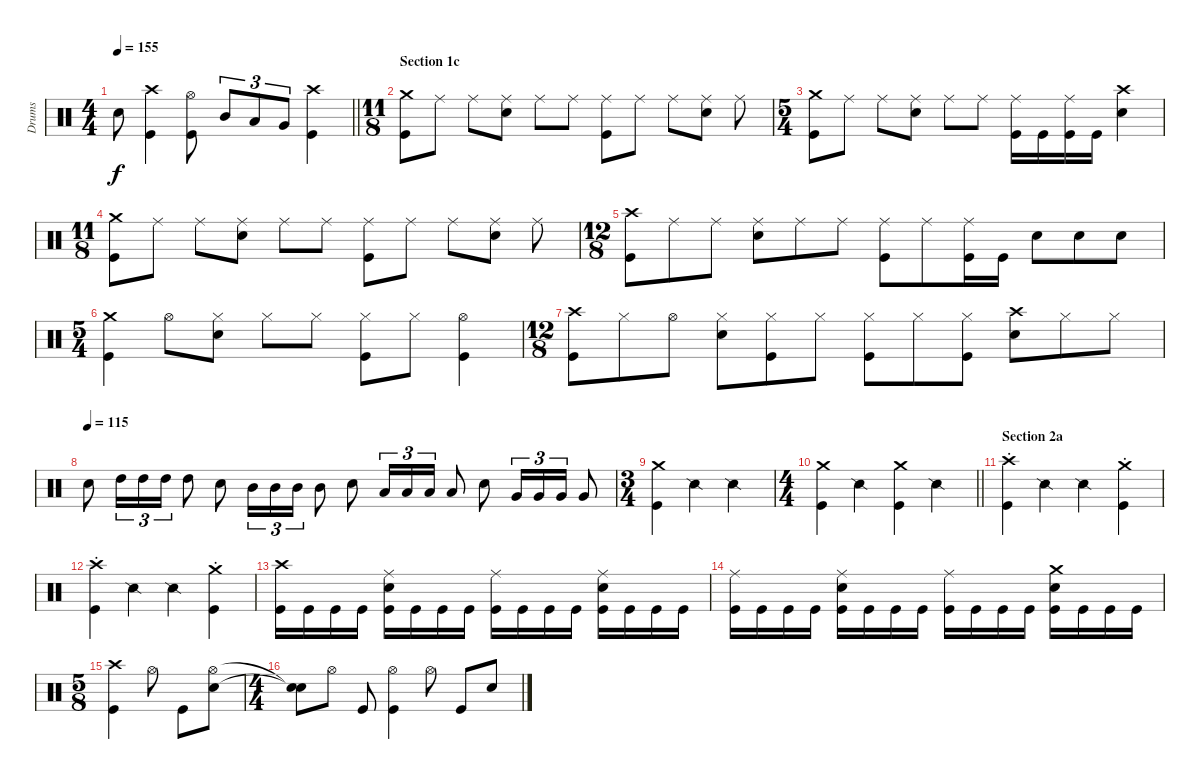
\track ("Drums" "Drums") {instrument percussion}
\staff {score}
\articulation defaults
\ts (4 4)
\tempo 155
\clef neutral
\barLineRight lightlight
\ks c "Snare (hit) 2".8{dy f}
("Crash high (hit)" "Kick (hit)").4 ("Hi-Hat (open)" "Kick (hit)").8 "Mid Tom (hit)".8{tu (3 2)} "Low Tom (hit)".8{tu (3 2)} "Very Low Tom (hit)".8{tu (3 2)} ("Crash high (hit)" "Kick (hit)").4 |
\ts (11 8)
\section ("" "Section 1c")
("Crash medium (hit)" "Kick (hit)").8 "Ride (middle)".8 "Ride (middle)".8 ("Ride (middle)" "Snare (hit) 2").8 "Ride (middle)".8 "Ride (middle)".8 ("Ride (middle)" "Kick (hit)").8 "Ride (middle)".8 "Ride (middle)".8 ("Ride (middle)" "Snare (hit) 2").8 "Ride (middle)".8 |
\ts (5 4)
("Crash medium (hit)" "Kick (hit)").8 "Ride (middle)".8 "Ride (middle)".8 ("Ride (middle)" "Snare (hit) 2").8 "Ride (middle)".8 "Ride (middle)".8 ("Ride (middle)" "Kick (hit)").16 "Kick (hit)".16 ("Ride (middle)" "Kick (hit)").16 "Kick (hit)".16 ("Crash high (hit)" "Snare (hit) 2").4 |
\ts (11 8)
("Crash medium (hit)" "Kick (hit)").8 "Ride (middle)".8 "Ride (middle)".8 ("Ride (middle)" "Snare (hit) 2").8 "Ride (middle)".8 "Ride (middle)".8 ("Ride (middle)" "Kick (hit)").8 "Ride (middle)".8 "Ride (middle)".8 ("Ride (middle)" "Snare (hit) 2").8 "Ride (middle)".8 |
\ts (12 8)
("Crash high (hit)" "Kick (hit)").8 "Ride (middle)".8 "Ride (middle)".8 ("Ride (middle)" "Snare (hit) 2").8 "Ride (middle)".8 "Ride (middle)".8 ("Ride (middle)" "Kick (hit)").8 "Ride (middle)".8 ("Ride (middle)" "Kick (hit)").16 "Kick (hit)".16 "Snare (hit) 2".8 "Snare (hit) 2".8 "Snare (hit) 2".8 |
\ts (5 4)
("Crash medium (hit)" "Kick (hit)").4 "Hi-Hat (open)".8 ("Hi-Hat (closed)" "Snare (hit) 2").8 "Hi-Hat (closed)".8 "Hi-Hat (closed)".8 ("Hi-Hat (closed)" "Kick (hit)").8 "Hi-Hat (closed)".8 ("Hi-Hat (open)" "Kick (hit)").4 |
\ts (12 8)
("Crash high (hit)" "Kick (hit)").8 "Hi-Hat (closed)".8 "Hi-Hat (open)".8 ("Hi-Hat (closed)" "Snare (hit) 2").8 ("Hi-Hat (closed)" "Kick (hit)").8 "Hi-Hat (closed)".8 ("Hi-Hat (closed)" "Kick (hit)").8 "Hi-Hat (closed)".8 ("Hi-Hat (closed)" "Kick (hit)").8 ("Crash high (hit)" "Snare (hit) 2").8 "Hi-Hat (closed)".8 "Hi-Hat (closed)".8 |
\tempo (115)
"Snare (hit) 2".8 "High Tom (hit)".16{tu (3 2)} "High Tom (hit)".16{tu (3 2)} "High Tom (hit)".16{tu (3 2)} "High Tom (hit)".8 "Snare (hit) 2".8 "Mid Tom (hit)".16{tu (3 2)} "Mid Tom (hit)".16{tu (3 2)} "Mid Tom (hit)".16{tu (3 2)} "Mid Tom (hit)".8 "Snare (hit) 2".8 "Low Tom (hit)".16{tu (3 2)} "Low Tom (hit)".16{tu (3 2)} "Low Tom (hit)".16{tu (3 2)} "Low Tom (hit)".8 "Snare (hit) 2".8 "Very Low Tom (hit)".16{tu (3 2)} "Very Low Tom (hit)".16{tu (3 2)} "Very Low Tom (hit)".16{tu (3 2)} "Very Low Tom (hit)".8 |
\ts (3 4)
("Crash medium (hit)" "Kick (hit)").4 "Snare (side stick) 2".4 "Snare (side stick) 2".4 |
\ts (4 4)
\barLineRight lightlight
("Crash medium (hit)" "Kick (hit)").4 "Snare (side stick) 2".4 ("Crash medium (hit)" "Kick (hit)").4 "Snare (side stick) 2".4 |
\section ("" "Section 2a")
("Crash high (hit)"{st} "Kick (hit)").4 "Snare (side stick) 2".4 "Snare (side stick) 2".4 ("Crash medium (hit)"{st} "Kick (hit)").4 |
("Crash high (hit)"{st} "Kick (hit)").4 "Snare (side stick) 2".4 "Snare (side stick) 2".4 ("Crash medium (hit)"{st} "Kick (hit)").4 |
("Crash high (hit)" "Kick (hit)").16 "Kick (hit)".16 "Kick (hit)".16 "Kick (hit)".16 ("Ride (middle)" "Snare (hit) 2" "Kick (hit)").16 "Kick (hit)".16 "Kick (hit)".16 "Kick (hit)".16 ("Ride (middle)" "Kick (hit)").16 "Kick (hit)".16 "Kick (hit)".16 "Kick (hit)".16 ("Ride (middle)" "Snare (hit) 2" "Kick (hit)").16 "Kick (hit)".16 "Kick (hit)".16 "Kick (hit)".16 |
("Ride (middle)" "Kick (hit)").16 "Kick (hit)".16 "Kick (hit)".16 "Kick (hit)".16 ("Ride (middle)" "Snare (hit) 2" "Kick (hit)").16 "Kick (hit)".16 "Kick (hit)".16 "Kick (hit)".16 ("Ride (middle)" "Kick (hit)").16 "Kick (hit)".16 "Kick (hit)".16 "Kick (hit)".16 ("Crash medium (hit)" "Snare (hit) 2" "Kick (hit)").16 "Kick (hit)".16 "Kick (hit)".16 "Kick (hit)".16 |
\ts (5 8)
("Crash high (hit)" "Kick (hit)").4 "Hi-Hat (open)".8 "Kick (hit)".8 ("Hi-Hat (open)" "Snare (hit) 2").8 |
\ts (4 4)
("Snare (hit)"{t} "Snare (hit)"{t}).8 "Hi-Hat (open)".8 "Kick (hit)".8 ("Hi-Hat (open)" "Kick (hit)").4 "Hi-Hat (open)".8 "Kick (hit)".8 "Snare (hit) 2".8
